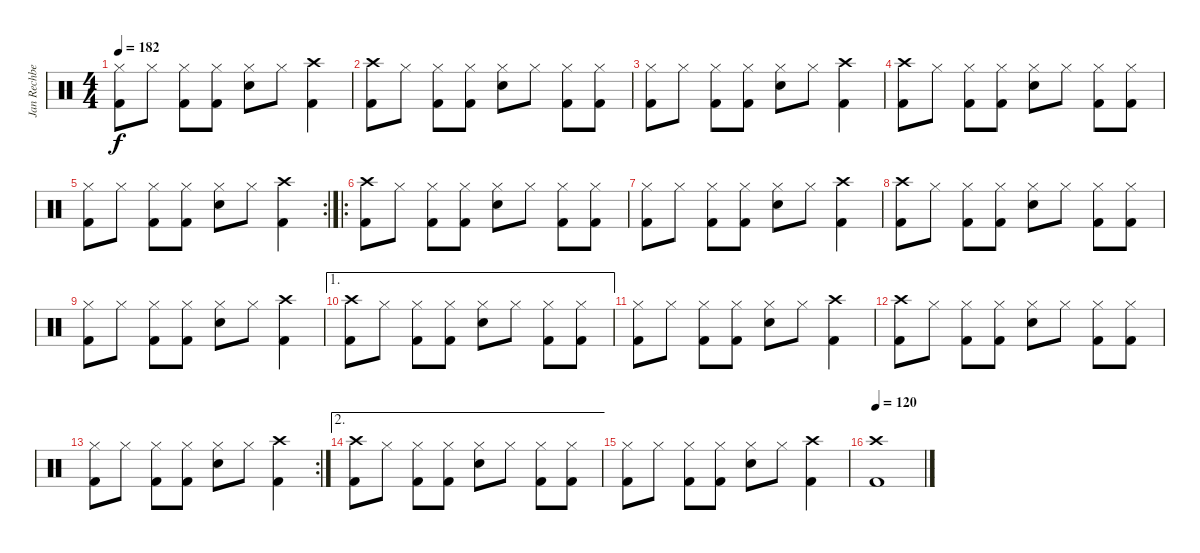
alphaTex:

\track ("Jan Rechberger" "Jan Rechbe") {instrument percussion}
\staff {score}
\articulation defaults
\ts (4 4)
\tempo 182
\clef neutral
\ks c
("Hi-Hat (closed)" "Kick (hit) 2").8{dy f} "Hi-Hat (closed)".8 ("Hi-Hat (closed)" "Kick (hit) 2").8 ("Hi-Hat (closed)" "Kick (hit) 2").8 ("Electric Snare (hit)" "Hi-Hat (closed)").8 "Hi-Hat (closed)".8 ("Crash high (hit)" "Kick (hit) 2").4 |
("Crash high (hit)" "Kick (hit) 2").8 "Hi-Hat (closed)".8 ("Hi-Hat (closed)" "Kick (hit) 2").8 ("Hi-Hat (closed)" "Kick (hit) 2").8 ("Electric Snare (hit)" "Hi-Hat (closed)").8 "Hi-Hat (closed)".8 ("Hi-Hat (closed)" "Kick (hit) 2").8 ("Hi-Hat (closed)" "Kick (hit) 2").8 |
("Hi-Hat (closed)" "Kick (hit) 2").8 "Hi-Hat (closed)".8 ("Hi-Hat (closed)" "Kick (hit) 2").8 ("Hi-Hat (closed)" "Kick (hit) 2").8 ("Electric Snare (hit)" "Hi-Hat (closed)").8 "Hi-Hat (closed)".8 ("Crash high (hit)" "Kick (hit) 2").4 |
("Crash high (hit)" "Kick (hit) 2").8 "Hi-Hat (closed)".8 ("Hi-Hat (closed)" "Kick (hit) 2").8 ("Hi-Hat (closed)" "Kick (hit) 2").8 ("Electric Snare (hit)" "Hi-Hat (closed)").8 "Hi-Hat (closed)".8 ("Hi-Hat (closed)" "Kick (hit) 2").8 ("Hi-Hat (closed)" "Kick (hit) 2").8 |
\rc 2
("Hi-Hat (closed)" "Kick (hit) 2").8 "Hi-Hat (closed)".8 ("Hi-Hat (closed)" "Kick (hit) 2").8 ("Hi-Hat (closed)" "Kick (hit) 2").8 ("Electric Snare (hit)" "Hi-Hat (closed)").8 "Hi-Hat (closed)".8 ("Crash high (hit)" "Kick (hit) 2").4 |
\ro
("Crash high (hit)" "Kick (hit) 2").8 "Hi-Hat (closed)".8 ("Hi-Hat (closed)" "Kick (hit) 2").8 ("Hi-Hat (closed)" "Kick (hit) 2").8 ("Electric Snare (hit)" "Hi-Hat (closed)").8 "Hi-Hat (closed)".8 ("Hi-Hat (closed)" "Kick (hit) 2").8 ("Hi-Hat (closed)" "Kick (hit) 2").8 |
("Hi-Hat (closed)" "Kick (hit) 2").8 "Hi-Hat (closed)".8 ("Hi-Hat (closed)" "Kick (hit) 2").8 ("Hi-Hat (closed)" "Kick (hit) 2").8 ("Electric Snare (hit)" "Hi-Hat (closed)").8 "Hi-Hat (closed)".8 ("Crash high (hit)" "Kick (hit) 2").4 |
("Crash high (hit)" "Kick (hit) 2").8 "Hi-Hat (closed)".8 ("Hi-Hat (closed)" "Kick (hit) 2").8 ("Hi-Hat (closed)" "Kick (hit) 2").8 ("Electric Snare (hit)" "Hi-Hat (closed)").8 "Hi-Hat (closed)".8 ("Hi-Hat (closed)" "Kick (hit) 2").8 ("Hi-Hat (closed)" "Kick (hit) 2").8 |
("Hi-Hat (closed)" "Kick (hit) 2").8 "Hi-Hat (closed)".8 ("Hi-Hat (closed)" "Kick (hit) 2").8 ("Hi-Hat (closed)" "Kick (hit) 2").8 ("Electric Snare (hit)" "Hi-Hat (closed)").8 "Hi-Hat (closed)".8 ("Crash high (hit)" "Kick (hit) 2").4 |
\ae 1
("Crash high (hit)" "Kick (hit) 2").8 "Hi-Hat (closed)".8 ("Hi-Hat (closed)" "Kick (hit) 2").8 ("Hi-Hat (closed)" "Kick (hit) 2").8 ("Electric Snare (hit)" "Hi-Hat (closed)").8 "Hi-Hat (closed)".8 ("Hi-Hat (closed)" "Kick (hit) 2").8 ("Hi-Hat (closed)" "Kick (hit) 2").8 |
("Hi-Hat (closed)" "Kick (hit) 2").8 "Hi-Hat (closed)".8 ("Hi-Hat (closed)" "Kick (hit) 2").8 ("Hi-Hat (closed)" "Kick (hit) 2").8 ("Electric Snare (hit)" "Hi-Hat (closed)").8 "Hi-Hat (closed)".8 ("Crash high (hit)" "Kick (hit) 2").4 |
("Crash high (hit)" "Kick (hit) 2").8 "Hi-Hat (closed)".8 ("Hi-Hat (closed)" "Kick (hit) 2").8 ("Hi-Hat (closed)" "Kick (hit) 2").8 ("Electric Snare (hit)" "Hi-Hat (closed)").8 "Hi-Hat (closed)".8 ("Hi-Hat (closed)" "Kick (hit) 2").8 ("Hi-Hat (closed)" "Kick (hit) 2").8 |
\rc 2
("Hi-Hat (closed)" "Kick (hit) 2").8 "Hi-Hat (closed)".8 ("Hi-Hat (closed)" "Kick (hit) 2").8 ("Hi-Hat (closed)" "Kick (hit) 2").8 ("Electric Snare (hit)" "Hi-Hat (closed)").8 "Hi-Hat (closed)".8 ("Crash high (hit)" "Kick (hit) 2").4 |
\ae 2
("Crash high (hit)" "Kick (hit) 2").8 "Hi-Hat (closed)".8 ("Hi-Hat (closed)" "Kick (hit) 2").8 ("Hi-Hat (closed)" "Kick (hit) 2").8 ("Electric Snare (hit)" "Hi-Hat (closed)").8 "Hi-Hat (closed)".8 ("Hi-Hat (closed)" "Kick (hit) 2").8 ("Hi-Hat (closed)" "Kick (hit) 2").8 |
("Hi-Hat (closed)" "Kick (hit) 2").8 "Hi-Hat (closed)".8 ("Hi-Hat (closed)" "Kick (hit) 2").8 ("Hi-Hat (closed)" "Kick (hit) 2").8 ("Electric Snare (hit)" "Hi-Hat (closed)").8 "Hi-Hat (closed)".8 ("Crash high (hit)" "Kick (hit) 2").4 |
\tempo 120
("Crash high (hit)" "Kick (hit) 2").1
